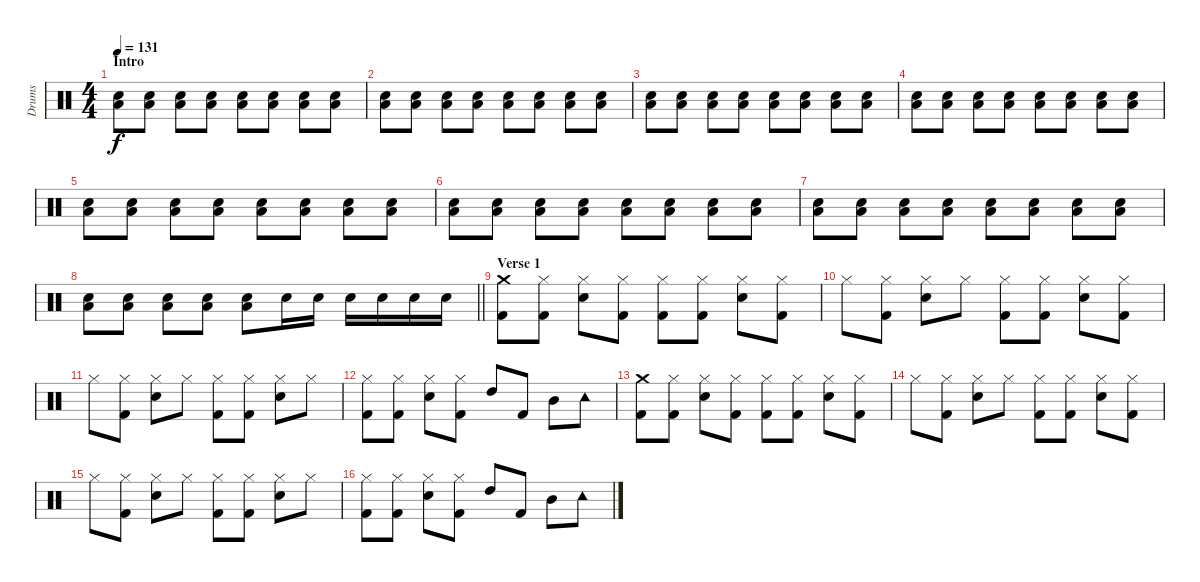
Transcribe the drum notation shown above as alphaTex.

\track ("Drums" "Drums") {instrument percussion}
\staff {score}
\articulation defaults
\ts (4 4)
\section ("" "Intro")
\tempo 131
\clef neutral
\ks c
("Low Floor Tom (hit)" "Snare (hit) 2").8{dy f} ("Low Floor Tom (hit)" "Snare (hit) 2").8 ("Low Floor Tom (hit)" "Snare (hit) 2").8 ("Low Floor Tom (hit)" "Snare (hit) 2").8 ("Low Floor Tom (hit)" "Snare (hit) 2").8 ("Low Floor Tom (hit)" "Snare (hit) 2").8 ("Low Floor Tom (hit)" "Snare (hit) 2").8 ("Low Floor Tom (hit)" "Snare (hit) 2").8 |
("Low Floor Tom (hit)" "Snare (hit) 2").8 ("Low Floor Tom (hit)" "Snare (hit) 2").8 ("Low Floor Tom (hit)" "Snare (hit) 2").8 ("Low Floor Tom (hit)" "Snare (hit) 2").8 ("Low Floor Tom (hit)" "Snare (hit) 2").8 ("Low Floor Tom (hit)" "Snare (hit) 2").8 ("Low Floor Tom (hit)" "Snare (hit) 2").8 ("Low Floor Tom (hit)" "Snare (hit) 2").8 |
("Low Floor Tom (hit)" "Snare (hit) 2").8 ("Low Floor Tom (hit)" "Snare (hit) 2").8 ("Low Floor Tom (hit)" "Snare (hit) 2").8 ("Low Floor Tom (hit)" "Snare (hit) 2").8 ("Low Floor Tom (hit)" "Snare (hit) 2").8 ("Low Floor Tom (hit)" "Snare (hit) 2").8 ("Low Floor Tom (hit)" "Snare (hit) 2").8 ("Low Floor Tom (hit)" "Snare (hit) 2").8 |
("Low Floor Tom (hit)" "Snare (hit) 2").8 ("Low Floor Tom (hit)" "Snare (hit) 2").8 ("Low Floor Tom (hit)" "Snare (hit) 2").8 ("Low Floor Tom (hit)" "Snare (hit) 2").8 ("Low Floor Tom (hit)" "Snare (hit) 2").8 ("Low Floor Tom (hit)" "Snare (hit) 2").8 ("Low Floor Tom (hit)" "Snare (hit) 2").8 ("Low Floor Tom (hit)" "Snare (hit) 2").8 |
("Low Floor Tom (hit)" "Snare (hit) 2").8 ("Low Floor Tom (hit)" "Snare (hit) 2").8 ("Low Floor Tom (hit)" "Snare (hit) 2").8 ("Low Floor Tom (hit)" "Snare (hit) 2").8 ("Low Floor Tom (hit)" "Snare (hit) 2").8 ("Low Floor Tom (hit)" "Snare (hit) 2").8 ("Low Floor Tom (hit)" "Snare (hit) 2").8 ("Low Floor Tom (hit)" "Snare (hit) 2").8 |
("Low Floor Tom (hit)" "Snare (hit) 2").8 ("Low Floor Tom (hit)" "Snare (hit) 2").8 ("Low Floor Tom (hit)" "Snare (hit) 2").8 ("Low Floor Tom (hit)" "Snare (hit) 2").8 ("Low Floor Tom (hit)" "Snare (hit) 2").8 ("Low Floor Tom (hit)" "Snare (hit) 2").8 ("Low Floor Tom (hit)" "Snare (hit) 2").8 ("Low Floor Tom (hit)" "Snare (hit) 2").8 |
("Low Floor Tom (hit)" "Snare (hit) 2").8 ("Low Floor Tom (hit)" "Snare (hit) 2").8 ("Low Floor Tom (hit)" "Snare (hit) 2").8 ("Low Floor Tom (hit)" "Snare (hit) 2").8 ("Low Floor Tom (hit)" "Snare (hit) 2").8 ("Low Floor Tom (hit)" "Snare (hit) 2").8 ("Low Floor Tom (hit)" "Snare (hit) 2").8 ("Low Floor Tom (hit)" "Snare (hit) 2").8 |
\barLineRight lightlight
("Low Floor Tom (hit)" "Snare (hit) 2").8 ("Low Floor Tom (hit)" "Snare (hit) 2").8 ("Low Floor Tom (hit)" "Snare (hit) 2").8 ("Low Floor Tom (hit)" "Snare (hit) 2").8 ("Low Floor Tom (hit)" "Snare (hit) 2").8 "Snare (hit) 2".16 "Snare (hit) 2".16 "Snare (hit) 2".16 "Snare (hit) 2".16 "Snare (hit) 2".16 "Snare (hit) 2".16 |
\section ("" "Verse 1")
("Crash medium (hit)" "Kick (hit) 2").8 ("Hi-Hat (closed)" "Kick (hit) 2").8 ("Hi-Hat (closed)" "Snare (hit) 2").8 ("Hi-Hat (closed)" "Kick (hit) 2").8 ("Hi-Hat (closed)" "Kick (hit) 2").8 ("Hi-Hat (closed)" "Kick (hit) 2").8 ("Hi-Hat (closed)" "Snare (hit) 2").8 ("Hi-Hat (closed)" "Kick (hit) 2").8 |
"Hi-Hat (closed)".8 ("Hi-Hat (closed)" "Kick (hit) 2").8 ("Hi-Hat (closed)" "Snare (hit) 2").8 "Hi-Hat (closed)".8 ("Hi-Hat (closed)" "Kick (hit) 2").8 ("Hi-Hat (closed)" "Kick (hit) 2").8 ("Hi-Hat (closed)" "Snare (hit) 2").8 ("Hi-Hat (closed)" "Kick (hit) 2").8 |
"Hi-Hat (closed)".8 ("Hi-Hat (closed)" "Kick (hit) 2").8 ("Hi-Hat (closed)" "Snare (hit) 2").8 "Hi-Hat (closed)".8 ("Hi-Hat (closed)" "Kick (hit) 2").8 ("Hi-Hat (closed)" "Kick (hit) 2").8 ("Hi-Hat (closed)" "Snare (hit) 2").8 "Hi-Hat (closed)".8 |
("Hi-Hat (closed)" "Kick (hit) 2").8 ("Hi-Hat (closed)" "Kick (hit) 2").8 ("Hi-Hat (closed)" "Snare (hit) 2").8 ("Hi-Hat (closed)" "Kick (hit) 2").8 "High Tom (hit)".8 "Kick (hit) 2".8 "Mid Tom (hit)".8 "Tambourine (hit)".8 |
("Crash medium (hit)" "Kick (hit) 2").8 ("Hi-Hat (closed)" "Kick (hit) 2").8 ("Hi-Hat (closed)" "Snare (hit) 2").8 ("Hi-Hat (closed)" "Kick (hit) 2").8 ("Hi-Hat (closed)" "Kick (hit) 2").8 ("Hi-Hat (closed)" "Kick (hit) 2").8 ("Hi-Hat (closed)" "Snare (hit) 2").8 ("Hi-Hat (closed)" "Kick (hit) 2").8 |
"Hi-Hat (closed)".8 ("Hi-Hat (closed)" "Kick (hit) 2").8 ("Hi-Hat (closed)" "Snare (hit) 2").8 "Hi-Hat (closed)".8 ("Hi-Hat (closed)" "Kick (hit) 2").8 ("Hi-Hat (closed)" "Kick (hit) 2").8 ("Hi-Hat (closed)" "Snare (hit) 2").8 ("Hi-Hat (closed)" "Kick (hit) 2").8 |
"Hi-Hat (closed)".8 ("Hi-Hat (closed)" "Kick (hit) 2").8 ("Hi-Hat (closed)" "Snare (hit) 2").8 "Hi-Hat (closed)".8 ("Hi-Hat (closed)" "Kick (hit) 2").8 ("Hi-Hat (closed)" "Kick (hit) 2").8 ("Hi-Hat (closed)" "Snare (hit) 2").8 "Hi-Hat (closed)".8 |
("Hi-Hat (closed)" "Kick (hit) 2").8 ("Hi-Hat (closed)" "Kick (hit) 2").8 ("Hi-Hat (closed)" "Snare (hit) 2").8 ("Hi-Hat (closed)" "Kick (hit) 2").8 "High Tom (hit)".8 "Kick (hit) 2".8 "Mid Tom (hit)".8 "Tambourine (hit)".8
